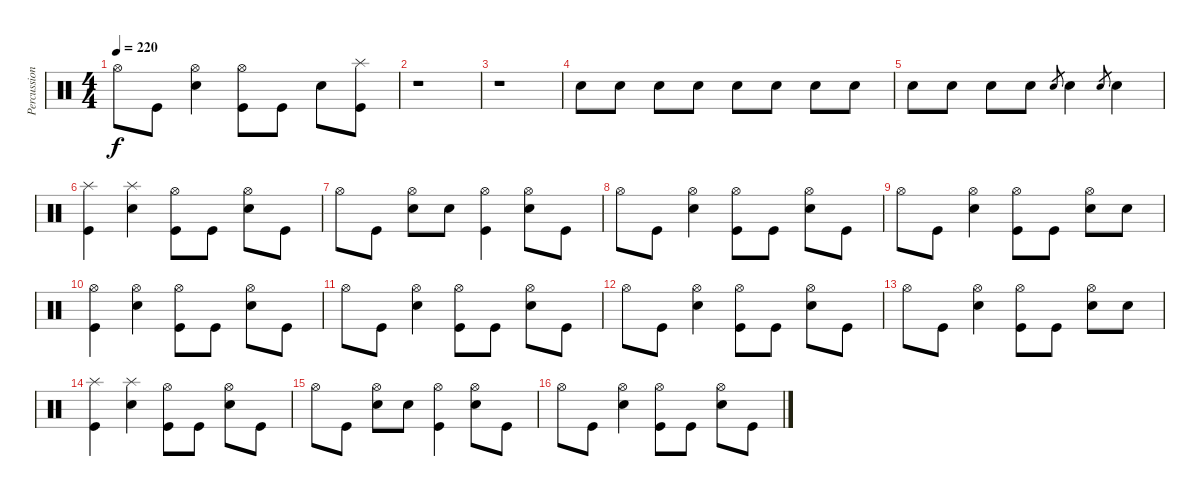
\track ("Percussions" "Percussion") {instrument percussion}
\staff {score}
\articulation defaults
\ts (4 4)
\tempo 220
\clef neutral
\ks c "Hi-Hat (open)".8{dy f} "Kick (hit)".8
("Electric Snare (hit)" "Hi-Hat (open)").4 ("Kick (hit)" "Hi-Hat (open)").8 "Kick (hit)".8 "Electric Snare (hit)".8 ("Kick (hit)" "Splash (hit)").8 |
r.1 |
r.1 |
"Electric Snare (hit)".8 "Electric Snare (hit)".8 "Electric Snare (hit)".8 "Electric Snare (hit)".8 "Electric Snare (hit)".8 "Electric Snare (hit)".8 "Electric Snare (hit)".8 "Electric Snare (hit)".8 |
"Electric Snare (hit)".8 "Electric Snare (hit)".8 "Electric Snare (hit)".8 "Electric Snare (hit)".8 "Electric Snare (hit)".8{gr} "Electric Snare (hit)".4 "Electric Snare (hit)".8{gr} "Electric Snare (hit)".4 |
("Kick (hit)" "Splash (hit)").4 ("Electric Snare (hit)" "Splash (hit)").4 ("Kick (hit)" "Hi-Hat (open)").8 "Kick (hit)".8 ("Electric Snare (hit)" "Hi-Hat (open)").8 "Kick (hit)".8 |
"Hi-Hat (open)".8 "Kick (hit)".8 ("Electric Snare (hit)" "Hi-Hat (open)").8 "Electric Snare (hit)".8 ("Kick (hit)" "Hi-Hat (open)").4 ("Electric Snare (hit)" "Hi-Hat (open)").8 "Kick (hit)".8 |
"Hi-Hat (open)".8 "Kick (hit)".8 ("Electric Snare (hit)" "Hi-Hat (open)").4 ("Kick (hit)" "Hi-Hat (open)").8 "Kick (hit)".8 ("Electric Snare (hit)" "Hi-Hat (open)").8 "Kick (hit)".8 |
"Hi-Hat (open)".8 "Kick (hit)".8 ("Electric Snare (hit)" "Hi-Hat (open)").4 ("Kick (hit)" "Hi-Hat (open)").8 "Kick (hit)".8 ("Electric Snare (hit)" "Hi-Hat (open)").8 "Electric Snare (hit)".8 |
("Kick (hit)" "Hi-Hat (open)").4 ("Electric Snare (hit)" "Hi-Hat (open)").4 ("Kick (hit)" "Hi-Hat (open)").8 "Kick (hit)".8 ("Electric Snare (hit)" "Hi-Hat (open)").8 "Kick (hit)".8 |
"Hi-Hat (open)".8 "Kick (hit)".8 ("Electric Snare (hit)" "Hi-Hat (open)").4 ("Kick (hit)" "Hi-Hat (open)").8 "Kick (hit)".8 ("Electric Snare (hit)" "Hi-Hat (open)").8 "Kick (hit)".8 |
"Hi-Hat (open)".8 "Kick (hit)".8 ("Electric Snare (hit)" "Hi-Hat (open)").4 ("Kick (hit)" "Hi-Hat (open)").8 "Kick (hit)".8 ("Electric Snare (hit)" "Hi-Hat (open)").8 "Kick (hit)".8 |
"Hi-Hat (open)".8 "Kick (hit)".8 ("Electric Snare (hit)" "Hi-Hat (open)").4 ("Kick (hit)" "Hi-Hat (open)").8 "Kick (hit)".8 ("Electric Snare (hit)" "Hi-Hat (open)").8 "Electric Snare (hit)".8 |
("Kick (hit)" "Splash (hit)").4 ("Electric Snare (hit)" "Splash (hit)").4 ("Kick (hit)" "Hi-Hat (open)").8 "Kick (hit)".8 ("Electric Snare (hit)" "Hi-Hat (open)").8 "Kick (hit)".8 |
"Hi-Hat (open)".8 "Kick (hit)".8 ("Electric Snare (hit)" "Hi-Hat (open)").8 "Electric Snare (hit)".8 ("Kick (hit)" "Hi-Hat (open)").4 ("Electric Snare (hit)" "Hi-Hat (open)").8 "Kick (hit)".8 |
"Hi-Hat (open)".8 "Kick (hit)".8 ("Electric Snare (hit)" "Hi-Hat (open)").4 ("Kick (hit)" "Hi-Hat (open)").8 "Kick (hit)".8 ("Electric Snare (hit)" "Hi-Hat (open)").8 "Kick (hit)".8
